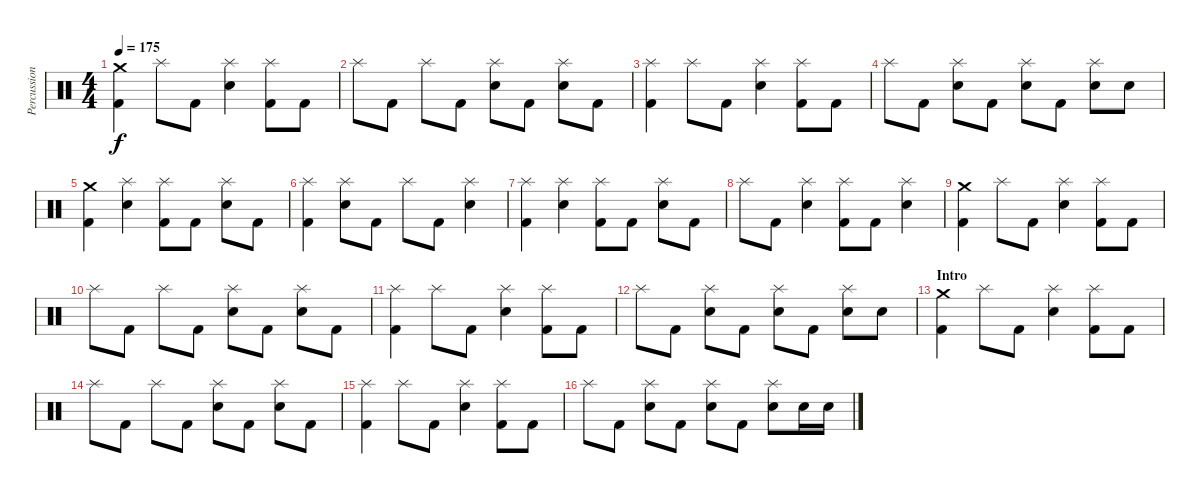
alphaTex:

\track ("Percussion" "Percussion") {instrument percussion}
\staff {score}
\articulation defaults
\ts (4 4)
\tempo 175
\clef neutral
\ks c
("Crash medium (hit)" "Kick (hit) 2").4{dy f} "Splash (hit)".8 "Kick (hit) 2".8 ("Splash (hit)" "Electric Snare (hit)").4 ("Splash (hit)" "Kick (hit) 2").8 "Kick (hit) 2".8 |
"Splash (hit)".8 "Kick (hit) 2".8 "Splash (hit)".8 "Kick (hit) 2".8 ("Splash (hit)" "Electric Snare (hit)").8 "Kick (hit) 2".8 ("Splash (hit)" "Electric Snare (hit)").8 "Kick (hit) 2".8 |
("Splash (hit)" "Kick (hit) 2").4 "Splash (hit)".8 "Kick (hit) 2".8 ("Splash (hit)" "Electric Snare (hit)").4 ("Splash (hit)" "Kick (hit) 2").8 "Kick (hit) 2".8 |
"Splash (hit)".8 "Kick (hit) 2".8 ("Splash (hit)" "Electric Snare (hit)").8 "Kick (hit) 2".8 ("Splash (hit)" "Electric Snare (hit)").8 "Kick (hit) 2".8 ("Splash (hit)" "Electric Snare (hit)").8 "Electric Snare (hit)".8 |
("Crash medium (hit)" "Kick (hit) 2").4 ("Splash (hit)" "Electric Snare (hit)").4 ("Splash (hit)" "Kick (hit) 2").8 "Kick (hit) 2".8 ("Splash (hit)" "Electric Snare (hit)").8 "Kick (hit) 2".8 |
("Splash (hit)" "Kick (hit) 2").4 ("Splash (hit)" "Electric Snare (hit)").8 "Kick (hit) 2".8 "Splash (hit)".8 "Kick (hit) 2".8 ("Splash (hit)" "Electric Snare (hit)").4 |
("Splash (hit)" "Kick (hit) 2").4 ("Splash (hit)" "Electric Snare (hit)").4 ("Splash (hit)" "Kick (hit) 2").8 "Kick (hit) 2".8 ("Splash (hit)" "Electric Snare (hit)").8 "Kick (hit) 2".8 |
"Splash (hit)".8 "Kick (hit) 2".8 ("Splash (hit)" "Electric Snare (hit)").4 ("Splash (hit)" "Kick (hit) 2").8 "Kick (hit) 2".8 ("Splash (hit)" "Electric Snare (hit)").4 |
("Crash medium (hit)" "Kick (hit) 2").4 "Splash (hit)".8 "Kick (hit) 2".8 ("Splash (hit)" "Electric Snare (hit)").4 ("Splash (hit)" "Kick (hit) 2").8 "Kick (hit) 2".8 |
"Splash (hit)".8 "Kick (hit) 2".8 "Splash (hit)".8 "Kick (hit) 2".8 ("Splash (hit)" "Electric Snare (hit)").8 "Kick (hit) 2".8 ("Splash (hit)" "Electric Snare (hit)").8 "Kick (hit) 2".8 |
("Splash (hit)" "Kick (hit) 2").4 "Splash (hit)".8 "Kick (hit) 2".8 ("Splash (hit)" "Electric Snare (hit)").4 ("Splash (hit)" "Kick (hit) 2").8 "Kick (hit) 2".8 |
"Splash (hit)".8 "Kick (hit) 2".8 ("Splash (hit)" "Electric Snare (hit)").8 "Kick (hit) 2".8 ("Splash (hit)" "Electric Snare (hit)").8 "Kick (hit) 2".8 ("Splash (hit)" "Electric Snare (hit)").8 "Electric Snare (hit)".8 |
\section ("" "Intro")
("Crash medium (hit)" "Kick (hit) 2").4 "Splash (hit)".8 "Kick (hit) 2".8 ("Splash (hit)" "Electric Snare (hit)").4 ("Splash (hit)" "Kick (hit) 2").8 "Kick (hit) 2".8 |
"Splash (hit)".8 "Kick (hit) 2".8 "Splash (hit)".8 "Kick (hit) 2".8 ("Splash (hit)" "Electric Snare (hit)").8 "Kick (hit) 2".8 ("Splash (hit)" "Electric Snare (hit)").8 "Kick (hit) 2".8 |
("Splash (hit)" "Kick (hit) 2").4 "Splash (hit)".8 "Kick (hit) 2".8 ("Splash (hit)" "Electric Snare (hit)").4 ("Splash (hit)" "Kick (hit) 2").8 "Kick (hit) 2".8 |
"Splash (hit)".8 "Kick (hit) 2".8 ("Splash (hit)" "Electric Snare (hit)").8 "Kick (hit) 2".8 ("Splash (hit)" "Electric Snare (hit)").8 "Kick (hit) 2".8 ("Splash (hit)" "Electric Snare (hit)").8 "Electric Snare (hit)".16 "Electric Snare (hit)".16
